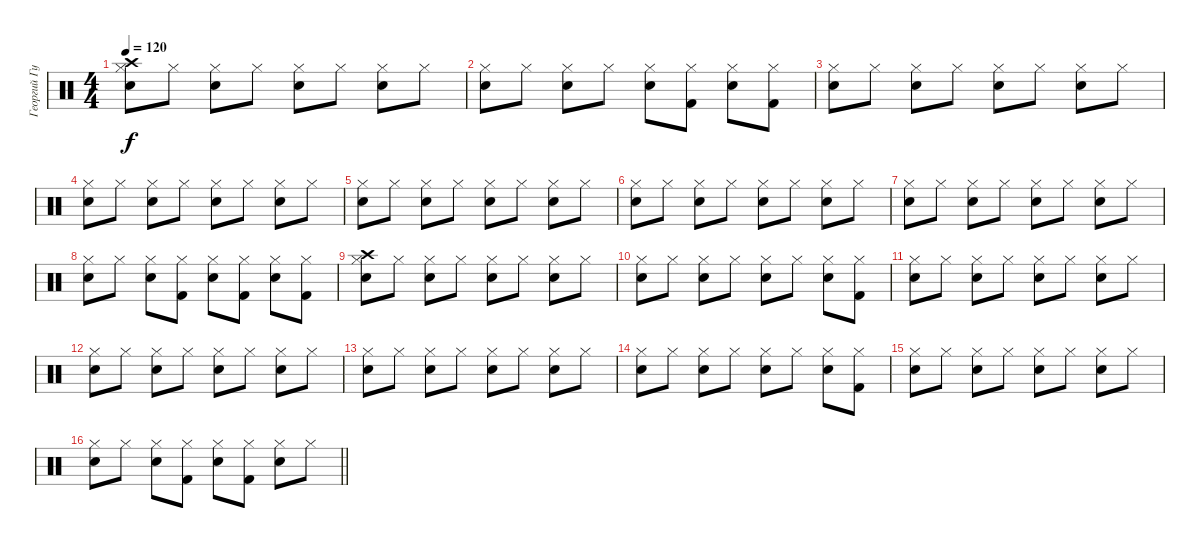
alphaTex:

\track ("Георгий Гурьянов" "Георгий Гу") {instrument percussion}
\staff {score}
\articulation defaults
\ts (4 4)
\tempo 120
\clef neutral
\ks c
("Hi-Hat (closed)" "Crash high (hit)" "Snare (hit) 2").8{dy f} "Hi-Hat (closed)".8 ("Hi-Hat (closed)" "Snare (hit) 2").8 "Hi-Hat (closed)".8 ("Hi-Hat (closed)" "Snare (hit) 2").8 "Hi-Hat (closed)".8 ("Hi-Hat (closed)" "Snare (hit) 2").8 "Hi-Hat (closed)".8 |
("Hi-Hat (closed)" "Snare (hit) 2").8 "Hi-Hat (closed)".8 ("Hi-Hat (closed)" "Snare (hit) 2").8 "Hi-Hat (closed)".8 ("Hi-Hat (closed)" "Snare (hit) 2").8 ("Hi-Hat (closed)" "Kick (hit) 2").8 ("Hi-Hat (closed)" "Snare (hit) 2").8 ("Hi-Hat (closed)" "Kick (hit) 2").8 |
("Hi-Hat (closed)" "Snare (hit) 2").8 "Hi-Hat (closed)".8 ("Hi-Hat (closed)" "Snare (hit) 2").8 "Hi-Hat (closed)".8 ("Hi-Hat (closed)" "Snare (hit) 2").8 "Hi-Hat (closed)".8 ("Hi-Hat (closed)" "Snare (hit) 2").8 "Hi-Hat (closed)".8 |
("Hi-Hat (closed)" "Snare (hit) 2").8 "Hi-Hat (closed)".8 ("Hi-Hat (closed)" "Snare (hit) 2").8 "Hi-Hat (closed)".8 ("Hi-Hat (closed)" "Snare (hit) 2").8 "Hi-Hat (closed)".8 ("Hi-Hat (closed)" "Snare (hit) 2").8 "Hi-Hat (closed)".8 |
("Hi-Hat (closed)" "Snare (hit) 2").8 "Hi-Hat (closed)".8 ("Hi-Hat (closed)" "Snare (hit) 2").8 "Hi-Hat (closed)".8 ("Hi-Hat (closed)" "Snare (hit) 2").8 "Hi-Hat (closed)".8 ("Hi-Hat (closed)" "Snare (hit) 2").8 "Hi-Hat (closed)".8 |
("Hi-Hat (closed)" "Snare (hit) 2").8 "Hi-Hat (closed)".8 ("Hi-Hat (closed)" "Snare (hit) 2").8 "Hi-Hat (closed)".8 ("Hi-Hat (closed)" "Snare (hit) 2").8 "Hi-Hat (closed)".8 ("Hi-Hat (closed)" "Snare (hit) 2").8 "Hi-Hat (closed)".8 |
("Hi-Hat (closed)" "Snare (hit) 2").8 "Hi-Hat (closed)".8 ("Hi-Hat (closed)" "Snare (hit) 2").8 "Hi-Hat (closed)".8 ("Hi-Hat (closed)" "Snare (hit) 2").8 "Hi-Hat (closed)".8 ("Hi-Hat (closed)" "Snare (hit) 2").8 "Hi-Hat (closed)".8 |
("Hi-Hat (closed)" "Snare (hit) 2").8 "Hi-Hat (closed)".8 ("Hi-Hat (closed)" "Snare (hit) 2").8 ("Hi-Hat (closed)" "Kick (hit) 2").8 ("Hi-Hat (closed)" "Snare (hit) 2").8 ("Hi-Hat (closed)" "Kick (hit) 2").8 ("Hi-Hat (closed)" "Snare (hit) 2").8 ("Hi-Hat (closed)" "Kick (hit) 2").8 |
("Hi-Hat (closed)" "Crash high (hit)" "Snare (hit) 2").8 "Hi-Hat (closed)".8 ("Hi-Hat (closed)" "Snare (hit) 2").8 "Hi-Hat (closed)".8 ("Hi-Hat (closed)" "Snare (hit) 2").8 "Hi-Hat (closed)".8 ("Hi-Hat (closed)" "Snare (hit) 2").8 "Hi-Hat (closed)".8 |
("Hi-Hat (closed)" "Snare (hit) 2").8 "Hi-Hat (closed)".8 ("Hi-Hat (closed)" "Snare (hit) 2").8 "Hi-Hat (closed)".8 ("Hi-Hat (closed)" "Snare (hit) 2").8 "Hi-Hat (closed)".8 ("Hi-Hat (closed)" "Snare (hit) 2").8 ("Hi-Hat (closed)" "Kick (hit) 2").8 |
("Hi-Hat (closed)" "Snare (hit) 2").8 "Hi-Hat (closed)".8 ("Hi-Hat (closed)" "Snare (hit) 2").8 "Hi-Hat (closed)".8 ("Hi-Hat (closed)" "Snare (hit) 2").8 "Hi-Hat (closed)".8 ("Hi-Hat (closed)" "Snare (hit) 2").8 "Hi-Hat (closed)".8 |
("Hi-Hat (closed)" "Snare (hit) 2").8 "Hi-Hat (closed)".8 ("Hi-Hat (closed)" "Snare (hit) 2").8 "Hi-Hat (closed)".8 ("Hi-Hat (closed)" "Snare (hit) 2").8 "Hi-Hat (closed)".8 ("Hi-Hat (closed)" "Snare (hit) 2").8 "Hi-Hat (closed)".8 |
("Hi-Hat (closed)" "Snare (hit) 2").8 "Hi-Hat (closed)".8 ("Hi-Hat (closed)" "Snare (hit) 2").8 "Hi-Hat (closed)".8 ("Hi-Hat (closed)" "Snare (hit) 2").8 "Hi-Hat (closed)".8 ("Hi-Hat (closed)" "Snare (hit) 2").8 "Hi-Hat (closed)".8 |
("Hi-Hat (closed)" "Snare (hit) 2").8 "Hi-Hat (closed)".8 ("Hi-Hat (closed)" "Snare (hit) 2").8 "Hi-Hat (closed)".8 ("Hi-Hat (closed)" "Snare (hit) 2").8 "Hi-Hat (closed)".8 ("Hi-Hat (closed)" "Snare (hit) 2").8 ("Hi-Hat (closed)" "Kick (hit) 2").8 |
("Hi-Hat (closed)" "Snare (hit) 2").8 "Hi-Hat (closed)".8 ("Hi-Hat (closed)" "Snare (hit) 2").8 "Hi-Hat (closed)".8 ("Hi-Hat (closed)" "Snare (hit) 2").8 "Hi-Hat (closed)".8 ("Hi-Hat (closed)" "Snare (hit) 2").8 "Hi-Hat (closed)".8 |
\barLineRight lightlight
("Hi-Hat (closed)" "Snare (hit) 2").8 "Hi-Hat (closed)".8 ("Hi-Hat (closed)" "Snare (hit) 2").8 ("Hi-Hat (closed)" "Kick (hit) 2").8 ("Hi-Hat (closed)" "Snare (hit) 2").8 ("Hi-Hat (closed)" "Kick (hit) 2").8 ("Hi-Hat (closed)" "Snare (hit) 2").8 "Hi-Hat (closed)".8
